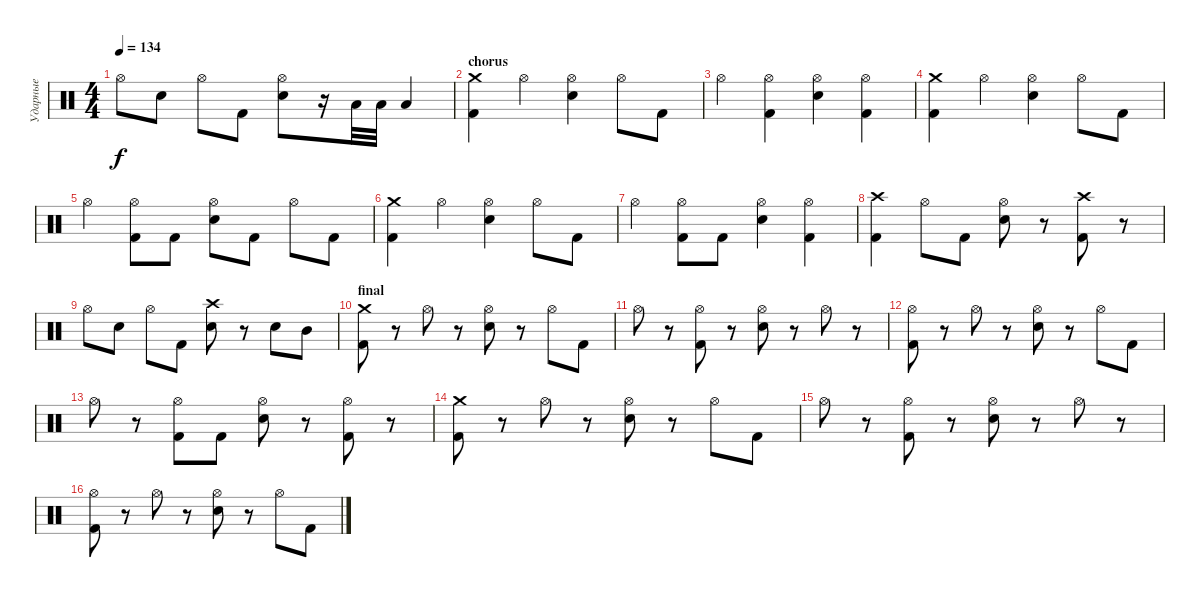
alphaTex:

\track ("Ударные" "Ударные") {instrument percussion}
\staff {score}
\articulation defaults
\ts (4 4)
\tempo 134
\clef neutral
\ks c "Hi-Hat (open)".8{dy f} "Electric Snare (hit)".8 "Hi-Hat (open)".8 "Kick (hit) 2".8
("Hi-Hat (open)" "Electric Snare (hit)").8 r.16 "Low Tom (hit)".32 "Low Tom (hit)".32 "Low Floor Tom (hit)".4 |
\section ("" "chorus")
("Crash medium (hit)" "Kick (hit) 2").4 "Hi-Hat (open)".4 ("Hi-Hat (open)" "Electric Snare (hit)").4 "Hi-Hat (open)".8 "Kick (hit) 2".8 |
"Hi-Hat (open)".4 ("Hi-Hat (open)" "Kick (hit) 2").4 ("Hi-Hat (open)" "Electric Snare (hit)").4 ("Hi-Hat (open)" "Kick (hit) 2").4 |
("Crash medium (hit)" "Kick (hit) 2").4 "Hi-Hat (open)".4 ("Hi-Hat (open)" "Electric Snare (hit)").4 "Hi-Hat (open)".8 "Kick (hit) 2".8 |
"Hi-Hat (open)".4 ("Hi-Hat (open)" "Kick (hit) 2").8 "Kick (hit) 2".8 ("Hi-Hat (open)" "Electric Snare (hit)").8 "Kick (hit) 2".8 "Hi-Hat (open)".8 "Kick (hit) 2".8 |
("Crash medium (hit)" "Kick (hit) 2").4 "Hi-Hat (open)".4 ("Hi-Hat (open)" "Electric Snare (hit)").4 "Hi-Hat (open)".8 "Kick (hit) 2".8 |
"Hi-Hat (open)".4 ("Hi-Hat (open)" "Kick (hit) 2").8 "Kick (hit) 2".8 ("Hi-Hat (open)" "Electric Snare (hit)").4 ("Hi-Hat (open)" "Kick (hit) 2").4 |
("Crash high (hit)" "Kick (hit) 2").4 "Hi-Hat (open)".8 "Kick (hit) 2".8 ("Hi-Hat (open)" "Electric Snare (hit)").8 r.8 ("Crash high (hit)" "Kick (hit) 2").8 r.8 |
"Hi-Hat (open)".8 "Electric Snare (hit)".8 "Hi-Hat (open)".8 "Kick (hit) 2".8 ("Crash high (hit)" "Electric Snare (hit)").8 r.8 "Electric Snare (hit)".8 "Mid Tom (hit)".8 |
\section ("" "final")
("Crash medium (hit)" "Kick (hit) 2").8 r.8 "Hi-Hat (open)".8 r.8 ("Hi-Hat (open)" "Electric Snare (hit)").8 r.8 "Hi-Hat (open)".8 "Kick (hit) 2".8 |
"Hi-Hat (open)".8 r.8 ("Hi-Hat (open)" "Kick (hit) 2").8 r.8 ("Hi-Hat (open)" "Electric Snare (hit)").8 r.8 "Hi-Hat (open)".8 r.8 |
("Hi-Hat (open)" "Kick (hit) 2").8 r.8 "Hi-Hat (open)".8 r.8 ("Hi-Hat (open)" "Electric Snare (hit)").8 r.8 "Hi-Hat (open)".8 "Kick (hit) 2".8 |
"Hi-Hat (open)".8 r.8 ("Hi-Hat (open)" "Kick (hit) 2").8 "Kick (hit) 2".8 ("Hi-Hat (open)" "Electric Snare (hit)").8 r.8 ("Hi-Hat (open)" "Kick (hit) 2").8 r.8 |
("Crash medium (hit)" "Kick (hit) 2").8 r.8 "Hi-Hat (open)".8 r.8 ("Hi-Hat (open)" "Electric Snare (hit)").8 r.8 "Hi-Hat (open)".8 "Kick (hit) 2".8 |
"Hi-Hat (open)".8 r.8 ("Hi-Hat (open)" "Kick (hit) 2").8 r.8 ("Hi-Hat (open)" "Electric Snare (hit)").8 r.8 "Hi-Hat (open)".8 r.8 |
("Hi-Hat (open)" "Kick (hit) 2").8 r.8 "Hi-Hat (open)".8 r.8 ("Hi-Hat (open)" "Electric Snare (hit)").8 r.8 "Hi-Hat (open)".8 "Kick (hit) 2".8
